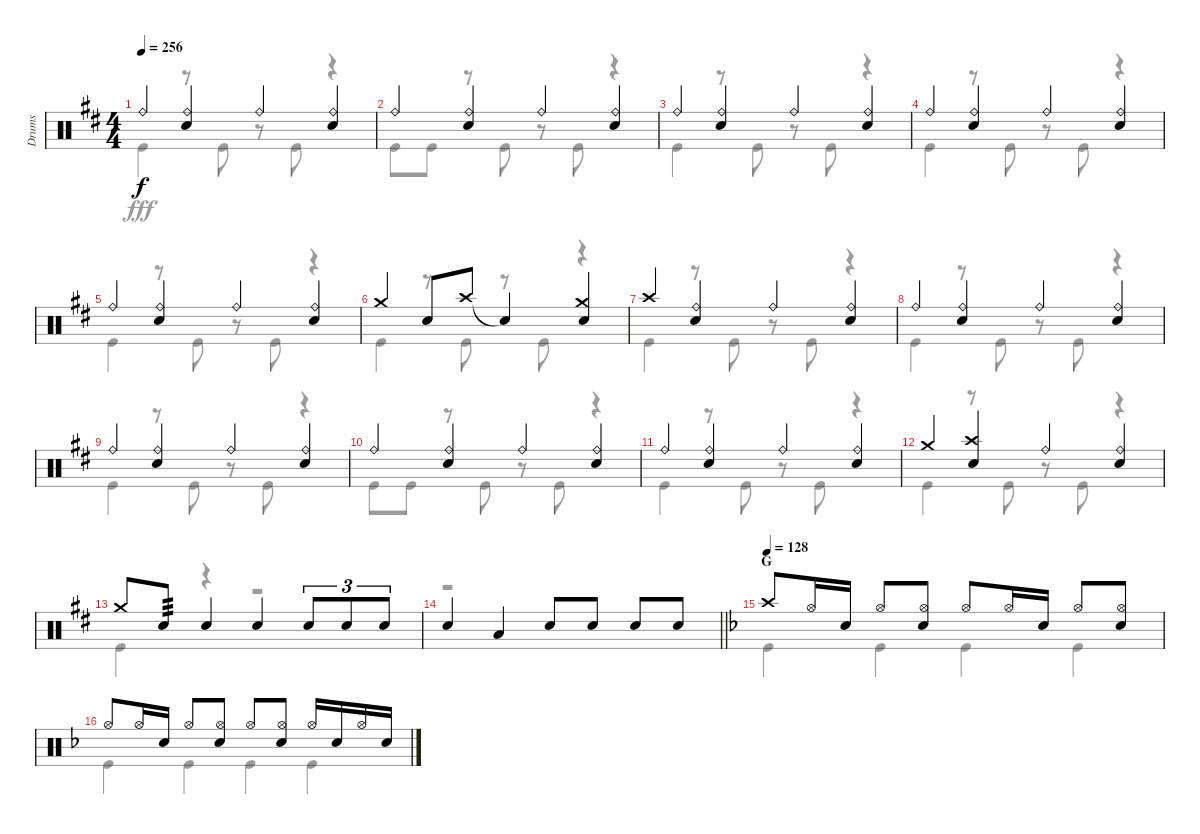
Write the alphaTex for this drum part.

\track ("Drums" "Drums") {instrument percussion}
\staff {score}
\articulation defaults
\voice
\ts (4 4)
\tempo 256
\clef neutral
\ks d "Ride (bell)".4{dy f}
("Ride (bell)" "Snare (hit) 2").4 "Ride (bell)".4 ("Ride (bell)" "Snare (hit) 2").4 |
"Ride (bell)".4 ("Ride (bell)" "Snare (hit) 2").4 "Ride (bell)".4 ("Ride (bell)" "Snare (hit) 2").4 |
"Ride (bell)".4 ("Ride (bell)" "Snare (hit) 2").4 "Ride (bell)".4 ("Ride (bell)" "Snare (hit) 2").4 |
"Ride (bell)".4 ("Ride (bell)" "Snare (hit) 2").4 "Ride (bell)".4 ("Ride (bell)" "Snare (hit) 2").4 |
"Ride (bell)".4 ("Ride (bell)" "Snare (hit) 2").4 "Ride (bell)".4 ("Ride (bell)" "Snare (hit) 2").4 |
"Crash medium (hit)".4 "Snare (hit) 2".8 "Crash high (hit)".8 "Snare (hit)"{t}.4 ("Crash medium (hit)" "Snare (hit) 2").4 |
"Crash high (hit)".4 ("Ride (bell)" "Snare (hit) 2").4 "Ride (bell)".4 ("Ride (bell)" "Snare (hit) 2").4 |
"Ride (bell)".4 ("Ride (bell)" "Snare (hit) 2").4 "Ride (bell)".4 ("Ride (bell)" "Snare (hit) 2").4 |
"Ride (bell)".4 ("Ride (bell)" "Snare (hit) 2").4 "Ride (bell)".4 ("Ride (bell)" "Snare (hit) 2").4 |
"Ride (bell)".4 ("Ride (bell)" "Snare (hit) 2").4 "Ride (bell)".4 ("Ride (bell)" "Snare (hit) 2").4 |
"Ride (bell)".4 ("Ride (bell)" "Snare (hit) 2").4 "Ride (bell)".4 ("Ride (bell)" "Snare (hit) 2").4 |
"Crash medium (hit)".4 ("Crash high (hit)" "Snare (hit) 2").4 "Ride (bell)".4 ("Ride (bell)" "Snare (hit) 2").4 |
"Crash medium (hit)".8 "Snare (hit) 2".8{tp 3} "Snare (hit) 2".4 "Snare (hit) 2".4 "Snare (hit) 2".8{tu (3 2)} "Snare (hit) 2".8{tu (3 2)} "Snare (hit) 2".8{tu (3 2)} |
\barLineRight lightlight "Snare (hit) 2".4 "Low Tom (hit)".4 "Snare (hit) 2".8 "Snare (hit) 2".8 "Snare (hit) 2".8 "Snare (hit) 2".8
|
\section ("" "G")
\tempo 128
\ks f "Crash high (hit)".8 "Hi-Hat (open)".16 "Snare (hit) 2".16 "Hi-Hat (open)".8
("Hi-Hat (open)" "Snare (hit) 2").8 "Hi-Hat (open)".8 "Hi-Hat (open)".16 "Snare (hit) 2".16 "Hi-Hat (open)".8 ("Hi-Hat (open)" "Snare (hit) 2").8 |
"Hi-Hat (open)".8 "Hi-Hat (open)".16 "Snare (hit) 2".16 "Hi-Hat (open)".8 ("Hi-Hat (open)" "Snare (hit) 2").8 "Hi-Hat (open)".8 ("Hi-Hat (open)" "Snare (hit) 2").8 "Hi-Hat (open)".16 "Snare (hit) 2".16 "Hi-Hat (open)".16 "Snare (hit) 2".16
\voice
\clef neutral
\ottava regular
\simile none
\ks d "Kick (hit)".4{dy fff}
r.8 "Kick (hit)".8 r.8 "Kick (hit)".8 r.4 |
"Kick (hit)".8 "Kick (hit)".8 r.8 "Kick (hit)".8 r.8 "Kick (hit)".8 r.4 |
"Kick (hit)".4 r.8 "Kick (hit)".8 r.8 "Kick (hit)".8 r.4 |
"Kick (hit)".4 r.8 "Kick (hit)".8 r.8 "Kick (hit)".8 r.4 |
"Kick (hit)".4 r.8 "Kick (hit)".8 r.8 "Kick (hit)".8 r.4 |
"Kick (hit)".4 r.8 "Kick (hit)".8 r.8 "Kick (hit)".8 r.4 |
"Kick (hit)".4 r.8 "Kick (hit)".8 r.8 "Kick (hit)".8 r.4 |
"Kick (hit)".4 r.8 "Kick (hit)".8 r.8 "Kick (hit)".8 r.4 |
"Kick (hit)".4 r.8 "Kick (hit)".8 r.8 "Kick (hit)".8 r.4 |
"Kick (hit)".8 "Kick (hit)".8 r.8 "Kick (hit)".8 r.8 "Kick (hit)".8 r.4 |
"Kick (hit)".4 r.8 "Kick (hit)".8 r.8 "Kick (hit)".8 r.4 |
"Kick (hit)".4 r.8 "Kick (hit)".8 r.8 "Kick (hit)".8 r.4 |
"Kick (hit)".4 r.4 r.2 |
\barLineRight lightlight
r.1 |
\ks f "Kick (hit)".4 "Kick (hit)".4 "Kick (hit)".4 "Kick (hit)".4
|
"Kick (hit)".4 "Kick (hit)".4 "Kick (hit)".4 "Kick (hit)".4
